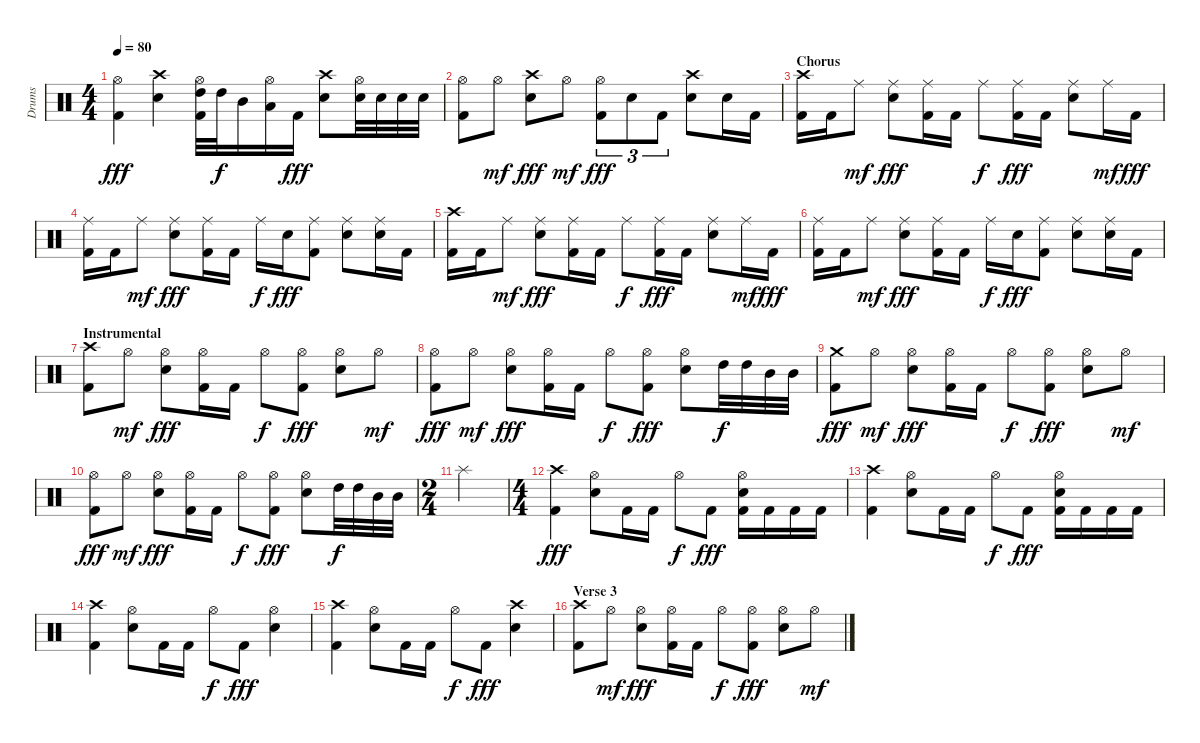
\track ("Drums" "Drums") {instrument percussion}
\staff {score}
\articulation defaults
\ts (4 4)
\tempo 80
\clef neutral
\ks c
("Hi-Hat (open)" "Kick (hit) 2").4{dy fff} ("Crash high (hit)" "Snare (hit) 2").4 ("Hi-Hat (open)" "High Tom (hit)" "Kick (hit) 2").32 "High Tom (hit)".32{dy f} "Mid Tom (hit)".16 ("Hi-Hat (open)" "Low Tom (hit)").16 "Kick (hit) 2".16{dy fff} ("Crash high (hit)" "Snare (hit) 2").8 ("Hi-Hat (open)" "Snare (hit) 2").32 "Snare (hit) 2".32 "Snare (hit) 2".32 "Snare (hit) 2".32 |
("Hi-Hat (open)" "Kick (hit) 2").8 "Hi-Hat (open)".8{dy mf} ("Crash high (hit)" "Snare (hit) 2").8{dy fff} "Hi-Hat (open)".8{dy mf} ("Hi-Hat (open)" "Kick (hit) 2").8{tu (3 2) dy fff} "Snare (hit) 2".8{tu (3 2)} "Kick (hit) 2".8{tu (3 2)} ("Crash high (hit)" "Snare (hit) 2").8 "Snare (hit) 2".16 "Kick (hit) 2".16 |
\section ("" "Chorus")
("Crash high (hit)" "Kick (hit) 2").16 "Kick (hit) 2".16 "Ride (middle)".8{dy mf} ("Ride (middle)" "Snare (hit) 2").8{dy fff} ("Ride (middle)" "Kick (hit) 2").16 "Kick (hit) 2".16 "Ride (middle)".8{dy f} ("Ride (middle)" "Kick (hit) 2").16{dy fff} "Kick (hit) 2".16 ("Ride (middle)" "Snare (hit) 2").8 "Ride (middle)".16{dy mf} "Kick (hit) 2".16{dy fff} |
("Ride (middle)" "Kick (hit) 2").16 "Kick (hit) 2".16 "Ride (middle)".8{dy mf} ("Ride (middle)" "Snare (hit) 2").8{dy fff} ("Ride (middle)" "Kick (hit) 2").16 "Kick (hit) 2".16 "Ride (middle)".16{dy f} "Snare (hit) 2".16{dy fff} ("Ride (middle)" "Kick (hit) 2").8 ("Ride (middle)" "Snare (hit) 2").8 ("Ride (middle)" "Snare (hit) 2").16 "Kick (hit) 2".16 |
("Crash high (hit)" "Kick (hit) 2").16 "Kick (hit) 2".16 "Ride (middle)".8{dy mf} ("Ride (middle)" "Snare (hit) 2").8{dy fff} ("Ride (middle)" "Kick (hit) 2").16 "Kick (hit) 2".16 "Ride (middle)".8{dy f} ("Ride (middle)" "Kick (hit) 2").16{dy fff} "Kick (hit) 2".16 ("Ride (middle)" "Snare (hit) 2").8 "Ride (middle)".16{dy mf} "Kick (hit) 2".16{dy fff} |
("Ride (middle)" "Kick (hit) 2").16 "Kick (hit) 2".16 "Ride (middle)".8{dy mf} ("Ride (middle)" "Snare (hit) 2").8{dy fff} ("Ride (middle)" "Kick (hit) 2").16 "Kick (hit) 2".16 "Ride (middle)".16{dy f} "Snare (hit) 2".16{dy fff} ("Ride (middle)" "Kick (hit) 2").8 ("Ride (middle)" "Snare (hit) 2").8 ("Ride (middle)" "Snare (hit) 2").16 "Kick (hit) 2".16 |
\section ("" "Instrumental")
("Crash high (hit)" "Kick (hit) 2").8 "Hi-Hat (open)".8{dy mf} ("Hi-Hat (open)" "Snare (hit) 2").8{dy fff} ("Hi-Hat (open)" "Kick (hit) 2").16 "Kick (hit) 2".16 "Hi-Hat (open)".8{dy f} ("Hi-Hat (open)" "Kick (hit) 2").8{dy fff} ("Hi-Hat (open)" "Snare (hit) 2").8 "Hi-Hat (open)".8{dy mf} |
("Hi-Hat (open)" "Kick (hit) 2").8{dy fff} "Hi-Hat (open)".8{dy mf} ("Hi-Hat (open)" "Snare (hit) 2").8{dy fff} ("Hi-Hat (open)" "Kick (hit) 2").16 "Kick (hit) 2".16 "Hi-Hat (open)".8{dy f} ("Hi-Hat (open)" "Kick (hit) 2").8{dy fff} ("Hi-Hat (open)" "Snare (hit) 2").8 "High Tom (hit)".32{dy f} "High Tom (hit)".32 "Mid Tom (hit)".32 "Mid Tom (hit)".32 |
("Crash medium (hit)" "Kick (hit) 2").8{dy fff} "Hi-Hat (open)".8{dy mf} ("Hi-Hat (open)" "Snare (hit) 2").8{dy fff} ("Hi-Hat (open)" "Kick (hit) 2").16 "Kick (hit) 2".16 "Hi-Hat (open)".8{dy f} ("Hi-Hat (open)" "Kick (hit) 2").8{dy fff} ("Hi-Hat (open)" "Snare (hit) 2").8 "Hi-Hat (open)".8{dy mf} |
("Hi-Hat (open)" "Kick (hit) 2").8{dy fff} "Hi-Hat (open)".8{dy mf} ("Hi-Hat (open)" "Snare (hit) 2").8{dy fff} ("Hi-Hat (open)" "Kick (hit) 2").16 "Kick (hit) 2".16 "Hi-Hat (open)".8{dy f} ("Hi-Hat (open)" "Kick (hit) 2").8{dy fff} ("Hi-Hat (open)" "Snare (hit) 2").8 "High Tom (hit)".32{dy f} "High Tom (hit)".32 "Mid Tom (hit)".32 "Mid Tom (hit)".32 |
\ts (2 4)
"Splash (hit)".2 |
\ts (4 4)
("Crash high (hit)" "Kick (hit) 2").4{dy fff} ("Hi-Hat (open)" "Snare (hit) 2").8 "Kick (hit) 2".16 "Kick (hit) 2".16 "Hi-Hat (open)".8{dy f} "Kick (hit) 2".8{dy fff} ("Hi-Hat (open)" "Snare (hit) 2" "Kick (hit) 2").16 "Kick (hit) 2".16 "Kick (hit) 2".16 "Kick (hit) 2".16 |
("Crash high (hit)" "Kick (hit) 2").4 ("Hi-Hat (open)" "Snare (hit) 2").8 "Kick (hit) 2".16 "Kick (hit) 2".16 "Hi-Hat (open)".8{dy f} "Kick (hit) 2".8{dy fff} ("Hi-Hat (open)" "Snare (hit) 2" "Kick (hit) 2").16 "Kick (hit) 2".16 "Kick (hit) 2".16 "Kick (hit) 2".16 |
("Crash high (hit)" "Kick (hit) 2").4 ("Hi-Hat (open)" "Snare (hit) 2").8 "Kick (hit) 2".16 "Kick (hit) 2".16 "Hi-Hat (open)".8{dy f} "Kick (hit) 2".8{dy fff} ("Hi-Hat (open)" "Snare (hit) 2").4 |
("Crash high (hit)" "Kick (hit) 2").4 ("Hi-Hat (open)" "Snare (hit) 2").8 "Kick (hit) 2".16 "Kick (hit) 2".16 "Hi-Hat (open)".8{dy f} "Kick (hit) 2".8{dy fff} ("Crash high (hit)" "Snare (hit) 2").4 |
\section ("" "Verse 3")
("Crash high (hit)" "Kick (hit) 2").8 "Hi-Hat (open)".8{dy mf} ("Hi-Hat (open)" "Snare (hit) 2").8{dy fff} ("Hi-Hat (open)" "Kick (hit) 2").16 "Kick (hit) 2".16 "Hi-Hat (open)".8{dy f} ("Hi-Hat (open)" "Kick (hit) 2").8{dy fff} ("Hi-Hat (open)" "Snare (hit) 2").8 "Hi-Hat (open)".8{dy mf}
